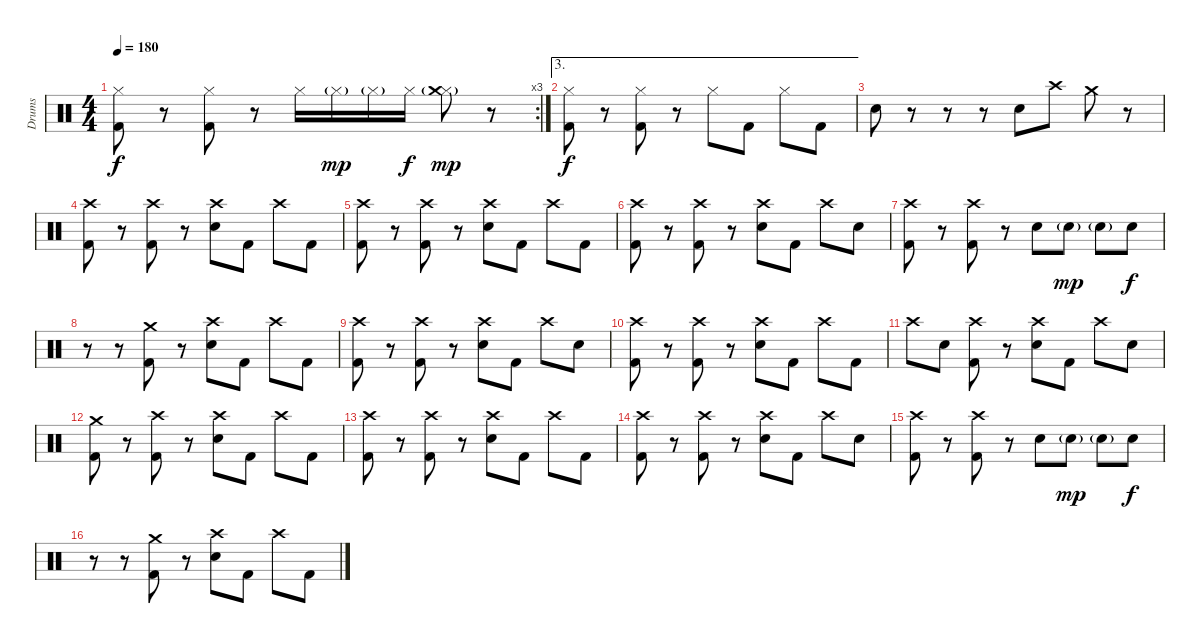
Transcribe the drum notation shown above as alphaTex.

\track ("Drums" "Drums") {instrument percussion}
\staff {score}
\articulation defaults
\rc 3
\ts (4 4)
\tempo 180
\clef neutral
\ks c
("Hi-Hat (closed)" "Kick (hit) 2").8{dy f} r.8 ("Hi-Hat (closed)" "Kick (hit) 2").8 r.8 "Hi-Hat (closed)".16 "Hi-Hat (closed)"{g}.16{dy mp} "Hi-Hat (closed)"{g}.16 "Hi-Hat (closed)".16{dy f} ("Hi-Hat (closed)" "Crash medium (hit)"{g}).8{dy mp} r.8 |
\ae 3
("Hi-Hat (closed)" "Kick (hit) 2").8{dy f} r.8 ("Hi-Hat (closed)" "Kick (hit) 2").8 r.8 "Hi-Hat (closed)".8 "Kick (hit) 2".8 "Hi-Hat (closed)".8 "Kick (hit) 2".8 |
"Snare (hit) 2".8 r.8 r.8 r.8 "Snare (hit) 2".8 "Crash high (hit)".8 "Crash medium (hit)".8 r.8 |
("Crash high (hit)" "Kick (hit) 2").8 r.8 ("Crash high (hit)" "Kick (hit) 2").8 r.8 ("Crash high (hit)" "Snare (hit) 2").8 "Kick (hit) 2".8 "Crash high (hit)".8 "Kick (hit) 2".8 |
("Crash high (hit)" "Kick (hit) 2").8 r.8 ("Crash high (hit)" "Kick (hit) 2").8 r.8 ("Crash high (hit)" "Snare (hit) 2").8 "Kick (hit) 2".8 "Crash high (hit)".8 "Kick (hit) 2".8 |
("Crash high (hit)" "Kick (hit) 2").8 r.8 ("Crash high (hit)" "Kick (hit) 2").8 r.8 ("Crash high (hit)" "Snare (hit) 2").8 "Kick (hit) 2".8 "Crash high (hit)".8 "Snare (hit) 2".8 |
("Crash high (hit)" "Kick (hit) 2").8 r.8 ("Crash high (hit)" "Kick (hit) 2").8 r.8 "Snare (hit) 2".8 "Snare (hit) 2"{g}.8{dy mp} "Snare (hit) 2"{g}.8 "Snare (hit) 2".8{dy f} |
r.8 r.8 ("Crash medium (hit)" "Kick (hit) 2").8 r.8 ("Crash high (hit)" "Snare (hit) 2").8 "Kick (hit) 2".8 "Crash high (hit)".8 "Kick (hit) 2".8 |
("Crash high (hit)" "Kick (hit) 2").8 r.8 ("Crash high (hit)" "Kick (hit) 2").8 r.8 ("Crash high (hit)" "Snare (hit) 2").8 "Kick (hit) 2".8 "Crash high (hit)".8 "Snare (hit) 2".8 |
("Crash high (hit)" "Kick (hit) 2").8 r.8 ("Crash high (hit)" "Kick (hit) 2").8 r.8 ("Crash high (hit)" "Snare (hit) 2").8 "Kick (hit) 2".8 "Crash high (hit)".8 "Kick (hit) 2".8 |
"Crash high (hit)".8 "Snare (hit) 2".8 ("Crash high (hit)" "Kick (hit) 2").8 r.8 ("Crash high (hit)" "Snare (hit) 2").8 "Kick (hit) 2".8 "Crash high (hit)".8 "Snare (hit) 2".8 |
("Crash medium (hit)" "Kick (hit) 2").8 r.8 ("Crash high (hit)" "Kick (hit) 2").8 r.8 ("Crash high (hit)" "Snare (hit) 2").8 "Kick (hit) 2".8 "Crash high (hit)".8 "Kick (hit) 2".8 |
("Crash high (hit)" "Kick (hit) 2").8 r.8 ("Crash high (hit)" "Kick (hit) 2").8 r.8 ("Crash high (hit)" "Snare (hit) 2").8 "Kick (hit) 2".8 "Crash high (hit)".8 "Kick (hit) 2".8 |
("Crash high (hit)" "Kick (hit) 2").8 r.8 ("Crash high (hit)" "Kick (hit) 2").8 r.8 ("Crash high (hit)" "Snare (hit) 2").8 "Kick (hit) 2".8 "Crash high (hit)".8 "Snare (hit) 2".8 |
("Crash high (hit)" "Kick (hit) 2").8 r.8 ("Crash high (hit)" "Kick (hit) 2").8 r.8 "Snare (hit) 2".8 "Snare (hit) 2"{g}.8{dy mp} "Snare (hit) 2"{g}.8 "Snare (hit) 2".8{dy f} |
r.8 r.8 ("Crash medium (hit)" "Kick (hit) 2").8 r.8 ("Crash high (hit)" "Snare (hit) 2").8 "Kick (hit) 2".8 "Crash high (hit)".8 "Kick (hit) 2".8
